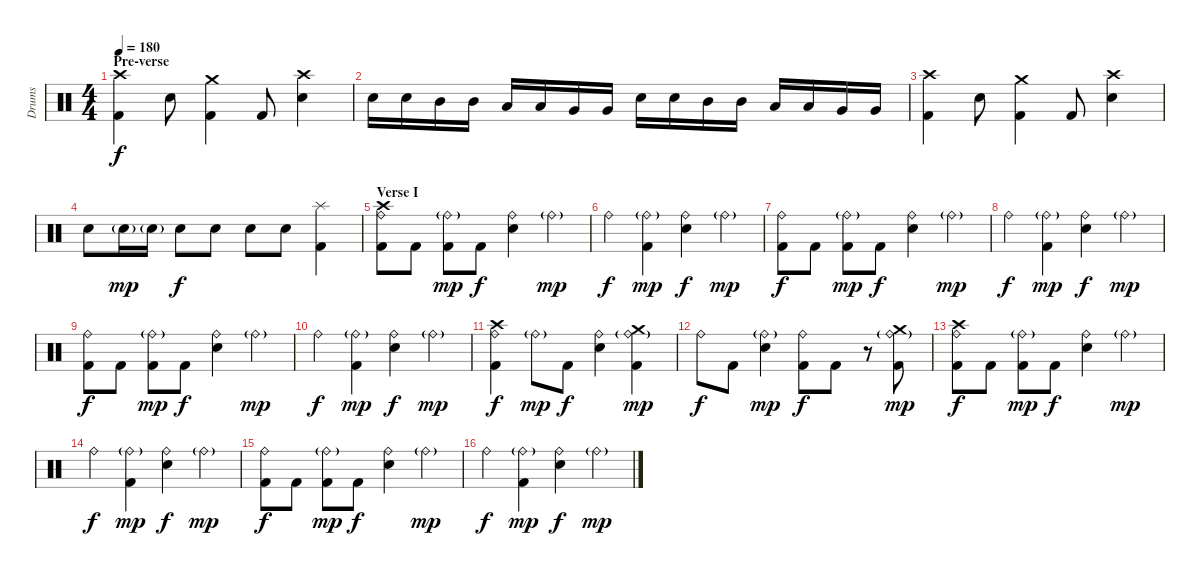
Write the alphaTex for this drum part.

\track ("Drums" "Drums") {instrument percussion}
\staff {score}
\articulation defaults
\ts (4 4)
\section ("" "Pre-verse")
\tempo 180
\clef neutral
\ks c
("Kick (hit) 2" "Crash high (hit)").4{dy f} "Electric Snare (hit)".8 ("Kick (hit) 2" "Crash medium (hit)").4 "Kick (hit) 2".8 ("Electric Snare (hit)" "Crash high (hit)").4 |
"Electric Snare (hit)".16 "Electric Snare (hit)".16 "Mid Tom (hit)".16 "Mid Tom (hit)".16 "Low Tom (hit)".16 "Low Tom (hit)".16 "Very Low Tom (hit)".16 "Very Low Tom (hit)".16 "Electric Snare (hit)".16 "Electric Snare (hit)".16 "Mid Tom (hit)".16 "Mid Tom (hit)".16 "Low Tom (hit)".16 "Low Tom (hit)".16 "Very Low Tom (hit)".16 "Very Low Tom (hit)".16 |
("Kick (hit) 2" "Crash high (hit)").4 "Electric Snare (hit)".8 ("Kick (hit) 2" "Crash medium (hit)").4 "Kick (hit) 2".8 ("Electric Snare (hit)" "Crash high (hit)").4 |
"Electric Snare (hit)".8 "Electric Snare (hit)"{g}.16{dy mp} "Electric Snare (hit)"{g}.16 "Electric Snare (hit)".8{dy f} "Electric Snare (hit)".8 "Electric Snare (hit)".8 "Electric Snare (hit)".8 ("Splash (hit)" "Kick (hit) 2").4 |
\section ("" "Verse I")
("Ride (bell)" "Kick (hit) 2" "Crash high (hit)").8 "Kick (hit) 2".8 ("Ride (bell)"{g} "Kick (hit) 2").8{dy mp} "Kick (hit) 2".8{dy f} ("Ride (bell)" "Electric Snare (hit)").4 "Ride (bell)"{g}.4{dy mp} |
"Ride (bell)".4{dy f} ("Ride (bell)"{g} "Kick (hit) 2").4{dy mp} ("Ride (bell)" "Electric Snare (hit)").4{dy f} "Ride (bell)"{g}.4{dy mp} |
("Ride (bell)" "Kick (hit) 2").8{dy f} "Kick (hit) 2".8 ("Ride (bell)"{g} "Kick (hit) 2").8{dy mp} "Kick (hit) 2".8{dy f} ("Ride (bell)" "Electric Snare (hit)").4 "Ride (bell)"{g}.4{dy mp} |
"Ride (bell)".4{dy f} ("Ride (bell)"{g} "Kick (hit) 2").4{dy mp} ("Ride (bell)" "Electric Snare (hit)").4{dy f} "Ride (bell)"{g}.4{dy mp} |
("Ride (bell)" "Kick (hit) 2").8{dy f} "Kick (hit) 2".8 ("Ride (bell)"{g} "Kick (hit) 2").8{dy mp} "Kick (hit) 2".8{dy f} ("Ride (bell)" "Electric Snare (hit)").4 "Ride (bell)"{g}.4{dy mp} |
"Ride (bell)".4{dy f} ("Ride (bell)"{g} "Kick (hit) 2").4{dy mp} ("Ride (bell)" "Electric Snare (hit)").4{dy f} "Ride (bell)"{g}.4{dy mp} |
("Ride (bell)" "Kick (hit) 2" "Crash high (hit)").4{dy f} "Ride (bell)"{g}.8{dy mp} "Kick (hit) 2".8{dy f} ("Ride (bell)" "Electric Snare (hit)").4 ("Ride (bell)"{g} "Kick (hit) 2" "Crash medium (hit)").4{dy mp} |
"Ride (bell)".8{dy f} "Kick (hit) 2".8 ("Ride (bell)"{g} "Electric Snare (hit)").4{dy mp} ("Ride (bell)" "Kick (hit) 2").8{dy f} "Kick (hit) 2".8 r.8 ("Ride (bell)"{g} "Kick (hit) 2" "Crash medium (hit)").8{dy mp} |
("Ride (bell)" "Kick (hit) 2" "Crash high (hit)").8{dy f} "Kick (hit) 2".8 ("Ride (bell)"{g} "Kick (hit) 2").8{dy mp} "Kick (hit) 2".8{dy f} ("Ride (bell)" "Electric Snare (hit)").4 "Ride (bell)"{g}.4{dy mp} |
"Ride (bell)".4{dy f} ("Ride (bell)"{g} "Kick (hit) 2").4{dy mp} ("Ride (bell)" "Electric Snare (hit)").4{dy f} "Ride (bell)"{g}.4{dy mp} |
("Ride (bell)" "Kick (hit) 2").8{dy f} "Kick (hit) 2".8 ("Ride (bell)"{g} "Kick (hit) 2").8{dy mp} "Kick (hit) 2".8{dy f} ("Ride (bell)" "Electric Snare (hit)").4 "Ride (bell)"{g}.4{dy mp} |
"Ride (bell)".4{dy f} ("Ride (bell)"{g} "Kick (hit) 2").4{dy mp} ("Ride (bell)" "Electric Snare (hit)").4{dy f} "Ride (bell)"{g}.4{dy mp}
